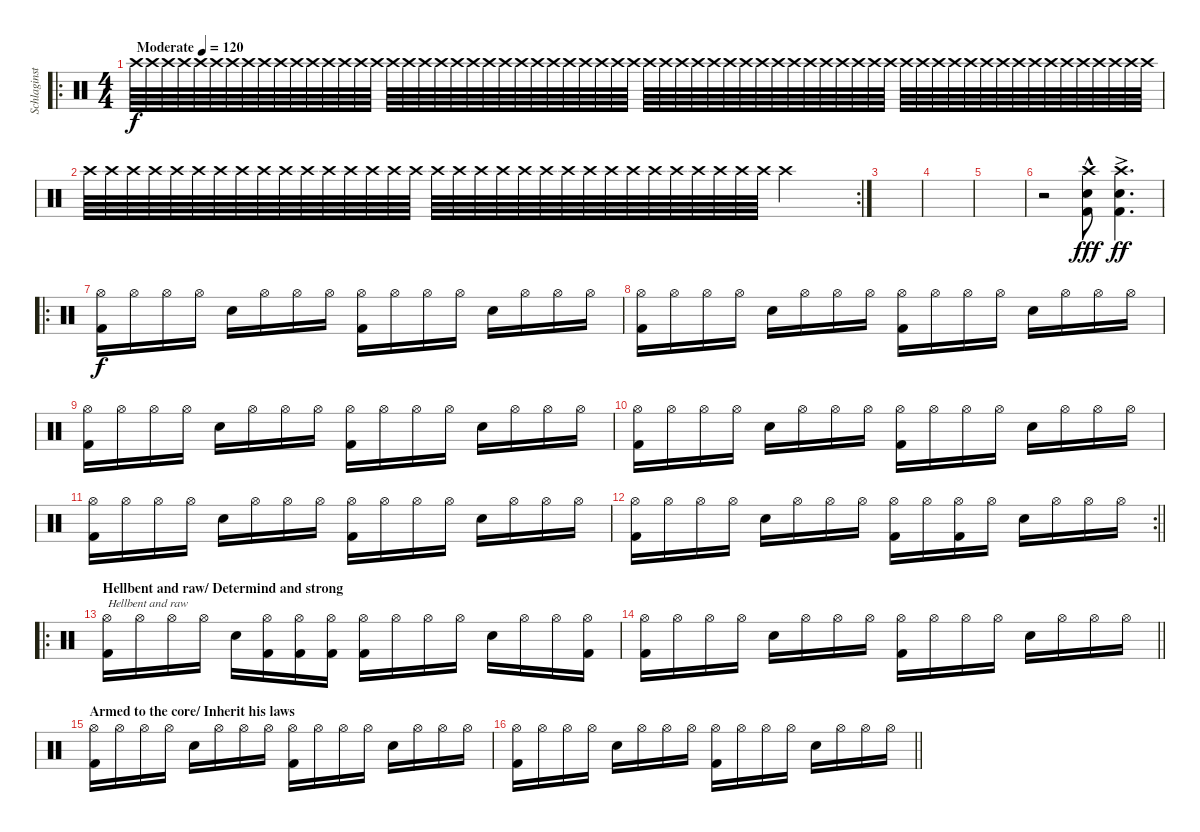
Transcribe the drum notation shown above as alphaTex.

\track ("Schlaginstrumente - Auswahl" "Schlaginst") {instrument percussion}
\staff {score}
\articulation defaults
\ro
\ts (4 4)
\tempo (120 "Moderate")
\clef neutral
\ks c "Crash high (hit)".64{dy f volume 0} "Crash high (hit)".64{volume 10} "Crash high (hit)".64 "Crash high (hit)".64 "Crash high (hit)".64 "Crash high (hit)".64 "Crash high (hit)".64 "Crash high (hit)".64 "Crash high (hit)".64 "Crash high (hit)".64 "Crash high (hit)".64 "Crash high (hit)".64 "Crash high (hit)".64 "Crash high (hit)".64 "Crash high (hit)".64 "Crash high (hit)".64 "Crash high (hit)".64 "Crash high (hit)".64 "Crash high (hit)".64 "Crash high (hit)".64 "Crash high (hit)".64 "Crash high (hit)".64 "Crash high (hit)".64 "Crash high (hit)".64 "Crash high (hit)".64 "Crash high (hit)".64 "Crash high (hit)".64 "Crash high (hit)".64 "Crash high (hit)".64 "Crash high (hit)".64 "Crash high (hit)".64 "Crash high (hit)".64 "Crash high (hit)".64 "Crash high (hit)".64 "Crash high (hit)".64 "Crash high (hit)".64 "Crash high (hit)".64 "Crash high (hit)".64 "Crash high (hit)".64 "Crash high (hit)".64 "Crash high (hit)".64 "Crash high (hit)".64 "Crash high (hit)".64 "Crash high (hit)".64 "Crash high (hit)".64 "Crash high (hit)".64 "Crash high (hit)".64 "Crash high (hit)".64 "Crash high (hit)".64 "Crash high (hit)".64 "Crash high (hit)".64 "Crash high (hit)".64 "Crash high (hit)".64 "Crash high (hit)".64 "Crash high (hit)".64 "Crash high (hit)".64 "Crash high (hit)".64 "Crash high (hit)".64 "Crash high (hit)".64 "Crash high (hit)".64 "Crash high (hit)".64 "Crash high (hit)".64 "Crash high (hit)".64 "Crash high (hit)".64
|
\rc 2 "Crash high (hit)".64 "Crash high (hit)".64 "Crash high (hit)".64 "Crash high (hit)".64 "Crash high (hit)".64 "Crash high (hit)".64 "Crash high (hit)".64 "Crash high (hit)".64 "Crash high (hit)".64 "Crash high (hit)".64 "Crash high (hit)".64 "Crash high (hit)".64 "Crash high (hit)".64 "Crash high (hit)".64 "Crash high (hit)".64 "Crash high (hit)".64 "Crash high (hit)".64 "Crash high (hit)".64 "Crash high (hit)".64 "Crash high (hit)".64 "Crash high (hit)".64 "Crash high (hit)".64 "Crash high (hit)".64 "Crash high (hit)".64 "Crash high (hit)".64 "Crash high (hit)".64 "Crash high (hit)".64 "Crash high (hit)".64 "Crash high (hit)".64 "Crash high (hit)".64 "Crash high (hit)".64 "Crash high (hit)".64 "Crash high (hit)".2
|
|
|
|
r.2 ("Crash high (hit)"{hac} "Electric Snare (hit)"{hac} "Kick (hit) 2"{hac}).8{dy fff} ("Crash high (hit)"{ac} "Electric Snare (hit)"{ac} "Kick (hit) 2"{ac}).4{d dy ff} |
\ro
("Hi-Hat (open)" "Kick (hit) 2").16{dy f} "Hi-Hat (open)".16 "Hi-Hat (open)".16 "Hi-Hat (open)".16 "Electric Snare (hit)".16 "Hi-Hat (open)".16 "Hi-Hat (open)".16 "Hi-Hat (open)".16 ("Hi-Hat (open)" "Kick (hit) 2").16 "Hi-Hat (open)".16 "Hi-Hat (open)".16 "Hi-Hat (open)".16 "Electric Snare (hit)".16 "Hi-Hat (open)".16 "Hi-Hat (open)".16 "Hi-Hat (open)".16 |
("Hi-Hat (open)" "Kick (hit) 2").16 "Hi-Hat (open)".16 "Hi-Hat (open)".16 "Hi-Hat (open)".16 "Electric Snare (hit)".16 "Hi-Hat (open)".16 "Hi-Hat (open)".16 "Hi-Hat (open)".16 ("Hi-Hat (open)" "Kick (hit) 2").16 "Hi-Hat (open)".16 "Hi-Hat (open)".16 "Hi-Hat (open)".16 "Electric Snare (hit)".16 "Hi-Hat (open)".16 "Hi-Hat (open)".16 "Hi-Hat (open)".16 |
("Hi-Hat (open)" "Kick (hit) 2").16 "Hi-Hat (open)".16 "Hi-Hat (open)".16 "Hi-Hat (open)".16 "Electric Snare (hit)".16 "Hi-Hat (open)".16 "Hi-Hat (open)".16 "Hi-Hat (open)".16 ("Hi-Hat (open)" "Kick (hit) 2").16 "Hi-Hat (open)".16 "Hi-Hat (open)".16 "Hi-Hat (open)".16 "Electric Snare (hit)".16 "Hi-Hat (open)".16 "Hi-Hat (open)".16 "Hi-Hat (open)".16 |
("Hi-Hat (open)" "Kick (hit) 2").16 "Hi-Hat (open)".16 "Hi-Hat (open)".16 "Hi-Hat (open)".16 "Electric Snare (hit)".16 "Hi-Hat (open)".16 "Hi-Hat (open)".16 "Hi-Hat (open)".16 ("Hi-Hat (open)" "Kick (hit) 2").16 "Hi-Hat (open)".16 "Hi-Hat (open)".16 "Hi-Hat (open)".16 "Electric Snare (hit)".16 "Hi-Hat (open)".16 "Hi-Hat (open)".16 "Hi-Hat (open)".16 |
("Hi-Hat (open)" "Kick (hit) 2").16 "Hi-Hat (open)".16 "Hi-Hat (open)".16 "Hi-Hat (open)".16 "Electric Snare (hit)".16 "Hi-Hat (open)".16 "Hi-Hat (open)".16 "Hi-Hat (open)".16 ("Hi-Hat (open)" "Kick (hit) 2").16 "Hi-Hat (open)".16 "Hi-Hat (open)".16 "Hi-Hat (open)".16 "Electric Snare (hit)".16 "Hi-Hat (open)".16 "Hi-Hat (open)".16 "Hi-Hat (open)".16 |
\rc 2
\barLineRight lightlight
("Hi-Hat (open)" "Kick (hit) 2").16 "Hi-Hat (open)".16 "Hi-Hat (open)".16 "Hi-Hat (open)".16 "Electric Snare (hit)".16 "Hi-Hat (open)".16 "Hi-Hat (open)".16 "Hi-Hat (open)".16 ("Hi-Hat (open)" "Kick (hit) 2").16 "Hi-Hat (open)".16 ("Hi-Hat (open)" "Kick (hit) 2").16 "Hi-Hat (open)".16 "Electric Snare (hit)".16 "Hi-Hat (open)".16 "Hi-Hat (open)".16 "Hi-Hat (open)".16 |
\ro
\section ("" "Hellbent and raw/ Determind and strong")
("Hi-Hat (open)" "Kick (hit) 2").16{txt "Hellbent and raw"} "Hi-Hat (open)".16 "Hi-Hat (open)".16 "Hi-Hat (open)".16 "Electric Snare (hit)".16 ("Hi-Hat (open)" "Kick (hit) 2").16 ("Hi-Hat (open)" "Kick (hit) 2").16 ("Hi-Hat (open)" "Kick (hit) 2").16 ("Hi-Hat (open)" "Kick (hit) 2").16 "Hi-Hat (open)".16 "Hi-Hat (open)".16 "Hi-Hat (open)".16 "Electric Snare (hit)".16 "Hi-Hat (open)".16 "Hi-Hat (open)".16 ("Hi-Hat (open)" "Kick (hit) 2").16 |
\barLineRight lightlight
("Hi-Hat (open)" "Kick (hit) 2").16 "Hi-Hat (open)".16 "Hi-Hat (open)".16 "Hi-Hat (open)".16 "Electric Snare (hit)".16 "Hi-Hat (open)".16 "Hi-Hat (open)".16 "Hi-Hat (open)".16 ("Hi-Hat (open)" "Kick (hit) 2").16 "Hi-Hat (open)".16 "Hi-Hat (open)".16 "Hi-Hat (open)".16 "Electric Snare (hit)".16 "Hi-Hat (open)".16 "Hi-Hat (open)".16 "Hi-Hat (open)".16 |
\section ("" "Armed to the core/ Inherit his laws")
("Hi-Hat (open)" "Kick (hit) 2").16 "Hi-Hat (open)".16 "Hi-Hat (open)".16 "Hi-Hat (open)".16 "Electric Snare (hit)".16 "Hi-Hat (open)".16 "Hi-Hat (open)".16 "Hi-Hat (open)".16 ("Hi-Hat (open)" "Kick (hit) 2").16 "Hi-Hat (open)".16 "Hi-Hat (open)".16 "Hi-Hat (open)".16 "Electric Snare (hit)".16 "Hi-Hat (open)".16 "Hi-Hat (open)".16 "Hi-Hat (open)".16 |
\barLineRight lightlight
("Hi-Hat (open)" "Kick (hit) 2").16 "Hi-Hat (open)".16 "Hi-Hat (open)".16 "Hi-Hat (open)".16 "Electric Snare (hit)".16 "Hi-Hat (open)".16 "Hi-Hat (open)".16 "Hi-Hat (open)".16 ("Hi-Hat (open)" "Kick (hit) 2").16 "Hi-Hat (open)".16 "Hi-Hat (open)".16 "Hi-Hat (open)".16 "Electric Snare (hit)".16 "Hi-Hat (open)".16 "Hi-Hat (open)".16 "Hi-Hat (open)".16
